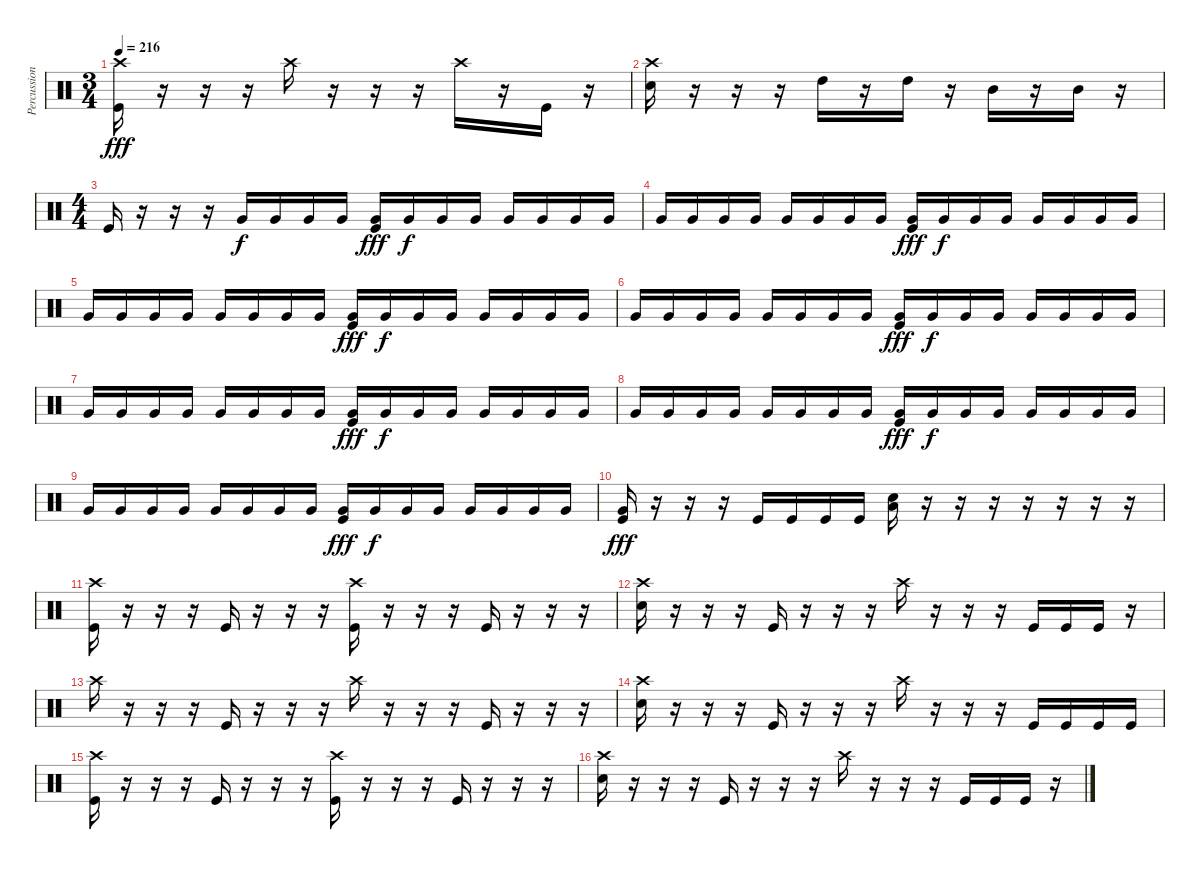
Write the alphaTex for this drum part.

\track ("Percussion" "Percussion") {instrument percussion}
\staff {score}
\articulation defaults
\ts (3 4)
\tempo 216
\clef neutral
\ks c
("Crash high (hit)" "Kick (hit)").16{dy fff} r.16 r.16 r.16 "Crash high (hit)".16 r.16 r.16 r.16 "Crash high (hit)".16 r.16 "Kick (hit)".16 r.16 |
("Crash high (hit)" "Electric Snare (hit)").16 r.16 r.16 r.16 "High Tom (hit)".16 r.16 "High Tom (hit)".16 r.16 "Mid Tom (hit)".16 r.16 "Mid Tom (hit)".16 r.16 |
\ts (4 4)
"Kick (hit)".16 r.16 r.16 r.16 "Very Low Tom (hit)".16{dy f} "Very Low Tom (hit)".16 "Very Low Tom (hit)".16 "Very Low Tom (hit)".16 ("Very Low Tom (hit)" "Kick (hit)").16{dy fff} "Very Low Tom (hit)".16{dy f} "Very Low Tom (hit)".16 "Very Low Tom (hit)".16 "Very Low Tom (hit)".16 "Very Low Tom (hit)".16 "Very Low Tom (hit)".16 "Very Low Tom (hit)".16 |
"Very Low Tom (hit)".16 "Very Low Tom (hit)".16 "Very Low Tom (hit)".16 "Very Low Tom (hit)".16 "Very Low Tom (hit)".16 "Very Low Tom (hit)".16 "Very Low Tom (hit)".16 "Very Low Tom (hit)".16 ("Very Low Tom (hit)" "Kick (hit)").16{dy fff} "Very Low Tom (hit)".16{dy f} "Very Low Tom (hit)".16 "Very Low Tom (hit)".16 "Very Low Tom (hit)".16 "Very Low Tom (hit)".16 "Very Low Tom (hit)".16 "Very Low Tom (hit)".16 |
"Very Low Tom (hit)".16 "Very Low Tom (hit)".16 "Very Low Tom (hit)".16 "Very Low Tom (hit)".16 "Very Low Tom (hit)".16 "Very Low Tom (hit)".16 "Very Low Tom (hit)".16 "Very Low Tom (hit)".16 ("Very Low Tom (hit)" "Kick (hit)").16{dy fff} "Very Low Tom (hit)".16{dy f} "Very Low Tom (hit)".16 "Very Low Tom (hit)".16 "Very Low Tom (hit)".16 "Very Low Tom (hit)".16 "Very Low Tom (hit)".16 "Very Low Tom (hit)".16 |
"Very Low Tom (hit)".16 "Very Low Tom (hit)".16 "Very Low Tom (hit)".16 "Very Low Tom (hit)".16 "Very Low Tom (hit)".16 "Very Low Tom (hit)".16 "Very Low Tom (hit)".16 "Very Low Tom (hit)".16 ("Very Low Tom (hit)" "Kick (hit)").16{dy fff} "Very Low Tom (hit)".16{dy f} "Very Low Tom (hit)".16 "Very Low Tom (hit)".16 "Very Low Tom (hit)".16 "Very Low Tom (hit)".16 "Very Low Tom (hit)".16 "Very Low Tom (hit)".16 |
"Very Low Tom (hit)".16 "Very Low Tom (hit)".16 "Very Low Tom (hit)".16 "Very Low Tom (hit)".16 "Very Low Tom (hit)".16 "Very Low Tom (hit)".16 "Very Low Tom (hit)".16 "Very Low Tom (hit)".16 ("Very Low Tom (hit)" "Kick (hit)").16{dy fff} "Very Low Tom (hit)".16{dy f} "Very Low Tom (hit)".16 "Very Low Tom (hit)".16 "Very Low Tom (hit)".16 "Very Low Tom (hit)".16 "Very Low Tom (hit)".16 "Very Low Tom (hit)".16 |
"Very Low Tom (hit)".16 "Very Low Tom (hit)".16 "Very Low Tom (hit)".16 "Very Low Tom (hit)".16 "Very Low Tom (hit)".16 "Very Low Tom (hit)".16 "Very Low Tom (hit)".16 "Very Low Tom (hit)".16 ("Very Low Tom (hit)" "Kick (hit)").16{dy fff} "Very Low Tom (hit)".16{dy f} "Very Low Tom (hit)".16 "Very Low Tom (hit)".16 "Very Low Tom (hit)".16 "Very Low Tom (hit)".16 "Very Low Tom (hit)".16 "Very Low Tom (hit)".16 |
"Very Low Tom (hit)".16 "Very Low Tom (hit)".16 "Very Low Tom (hit)".16 "Very Low Tom (hit)".16 "Very Low Tom (hit)".16 "Very Low Tom (hit)".16 "Very Low Tom (hit)".16 "Very Low Tom (hit)".16 ("Very Low Tom (hit)" "Kick (hit)").16{dy fff} "Very Low Tom (hit)".16{dy f} "Very Low Tom (hit)".16 "Very Low Tom (hit)".16 "Very Low Tom (hit)".16 "Very Low Tom (hit)".16 "Very Low Tom (hit)".16 "Very Low Tom (hit)".16 |
("Very Low Tom (hit)" "Kick (hit)").16{dy fff} r.16 r.16 r.16 "Kick (hit)".16 "Kick (hit)".16 "Kick (hit)".16 "Kick (hit)".16 ("Low Floor Tom (hit)" "Electric Snare (hit)").16 r.16 r.16 r.16 r.16 r.16 r.16 r.16 |
("Crash high (hit)" "Kick (hit)").16 r.16 r.16 r.16 "Kick (hit)".16 r.16 r.16 r.16 ("Crash high (hit)" "Kick (hit)").16 r.16 r.16 r.16 "Kick (hit)".16 r.16 r.16 r.16 |
("Crash high (hit)" "Electric Snare (hit)").16 r.16 r.16 r.16 "Kick (hit)".16 r.16 r.16 r.16 "Crash high (hit)".16 r.16 r.16 r.16 "Kick (hit)".16 "Kick (hit)".16 "Kick (hit)".16 r.16 |
"Crash high (hit)".16 r.16 r.16 r.16 "Kick (hit)".16 r.16 r.16 r.16 "Crash high (hit)".16 r.16 r.16 r.16 "Kick (hit)".16 r.16 r.16 r.16 |
("Crash high (hit)" "Electric Snare (hit)").16 r.16 r.16 r.16 "Kick (hit)".16 r.16 r.16 r.16 "Crash high (hit)".16 r.16 r.16 r.16 "Kick (hit)".16 "Kick (hit)".16 "Kick (hit)".16 "Kick (hit)".16 |
("Crash high (hit)" "Kick (hit)").16 r.16 r.16 r.16 "Kick (hit)".16 r.16 r.16 r.16 ("Crash high (hit)" "Kick (hit)").16 r.16 r.16 r.16 "Kick (hit)".16 r.16 r.16 r.16 |
("Crash high (hit)" "Electric Snare (hit)").16 r.16 r.16 r.16 "Kick (hit)".16 r.16 r.16 r.16 "Crash high (hit)".16 r.16 r.16 r.16 "Kick (hit)".16 "Kick (hit)".16 "Kick (hit)".16 r.16
